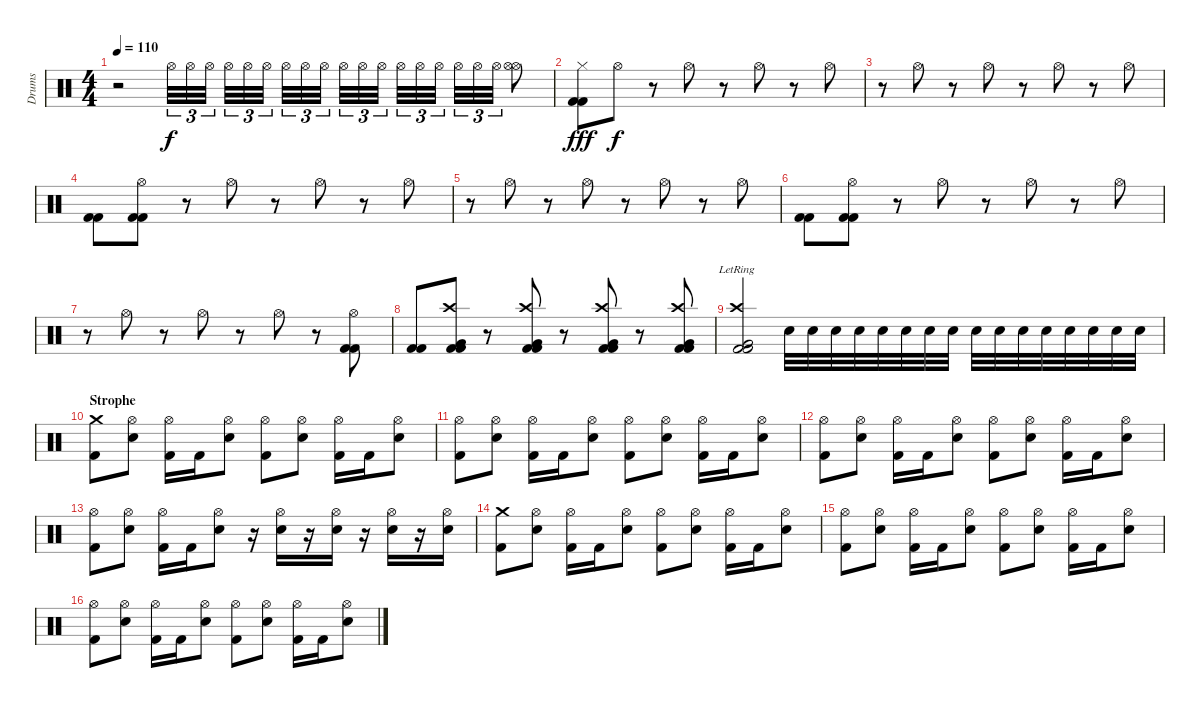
\track ("Drums" "Drums") {instrument percussion}
\staff {score}
\articulation defaults
\ts (4 4)
\tempo 110
\clef neutral
\ks c
r.2{dy f volume 0} "Hi-Hat (open)".32{tu (3 2) volume 13} "Hi-Hat (open)".32{tu (3 2)} "Hi-Hat (open)".32{tu (3 2)} "Hi-Hat (open)".32{tu (3 2)} "Hi-Hat (open)".32{tu (3 2)} "Hi-Hat (open)".32{tu (3 2)} "Hi-Hat (open)".32{tu (3 2)} "Hi-Hat (open)".32{tu (3 2)} "Hi-Hat (open)".32{tu (3 2)} "Hi-Hat (open)".32{tu (3 2)} "Hi-Hat (open)".32{tu (3 2)} "Hi-Hat (open)".32{tu (3 2)} "Hi-Hat (open)".32{tu (3 2)} "Hi-Hat (open)".32{tu (3 2)} "Hi-Hat (open)".32{tu (3 2)} "Hi-Hat (open)".32{tu (3 2)} "Hi-Hat (open)".32{tu (3 2)} "Hi-Hat (open)".32{tu (3 2)} ("Hi-Hat (open)" "Hi-Hat (open)").8 |
("Hi-Hat (closed)" "Kick (hit) 2" "Kick (hit) 2").8{dy fff} "Hi-Hat (open)".8{dy f} r.8 "Hi-Hat (open)".8 r.8 "Hi-Hat (open)".8 r.8 "Hi-Hat (open)".8 |
r.8 "Hi-Hat (open)".8 r.8 "Hi-Hat (open)".8 r.8 "Hi-Hat (open)".8 r.8 "Hi-Hat (open)".8 |
("Kick (hit) 2" "Kick (hit) 2").8 ("Hi-Hat (open)" "Kick (hit) 2" "Kick (hit) 2").8 r.8 "Hi-Hat (open)".8 r.8 "Hi-Hat (open)".8 r.8 "Hi-Hat (open)".8 |
r.8 "Hi-Hat (open)".8 r.8 "Hi-Hat (open)".8 r.8 "Hi-Hat (open)".8 r.8 "Hi-Hat (open)".8 |
("Kick (hit) 2" "Kick (hit) 2").8 ("Hi-Hat (open)" "Kick (hit) 2" "Kick (hit) 2").8 r.8 "Hi-Hat (open)".8 r.8 "Hi-Hat (open)".8 r.8 "Hi-Hat (open)".8 |
r.8 "Hi-Hat (open)".8 r.8 "Hi-Hat (open)".8 r.8 "Hi-Hat (open)".8 r.8 ("Hi-Hat (open)" "Kick (hit) 2" "Kick (hit) 2").8 |
("Kick (hit) 2" "Kick (hit) 2").8 ("Crash high (hit)" "Very Low Tom (hit)" "Kick (hit) 2" "Kick (hit) 2").8 r.8 ("Crash high (hit)" "Very Low Tom (hit)" "Kick (hit) 2" "Kick (hit) 2").8 r.8 ("Crash high (hit)" "Very Low Tom (hit)" "Kick (hit) 2" "Kick (hit) 2").8 r.8 ("Crash high (hit)" "Very Low Tom (hit)" "Kick (hit) 2" "Kick (hit) 2").8 |
("Crash high (hit)"{lr} "Very Low Tom (hit)" "Kick (hit) 2" "Kick (hit) 2").2 "Snare (hit) 2".32 "Snare (hit) 2".32 "Snare (hit) 2".32 "Snare (hit) 2".32 "Snare (hit) 2".32 "Snare (hit) 2".32 "Snare (hit) 2".32 "Snare (hit) 2".32 "Snare (hit) 2".32 "Snare (hit) 2".32 "Snare (hit) 2".32 "Snare (hit) 2".32 "Snare (hit) 2".32 "Snare (hit) 2".32 "Snare (hit) 2".32 "Snare (hit) 2".32 |
\section ("" "Strophe")
("Crash medium (hit)" "Kick (hit) 2").8 ("Hi-Hat (open)" "Snare (hit) 2").8 ("Hi-Hat (open)" "Kick (hit) 2").16 "Kick (hit) 2".16 ("Hi-Hat (open)" "Snare (hit) 2").8 ("Hi-Hat (open)" "Kick (hit) 2").8 ("Hi-Hat (open)" "Snare (hit) 2").8 ("Hi-Hat (open)" "Kick (hit) 2").16 "Kick (hit) 2".16 ("Hi-Hat (open)" "Snare (hit) 2").8 |
("Hi-Hat (open)" "Kick (hit) 2").8 ("Hi-Hat (open)" "Snare (hit) 2").8 ("Hi-Hat (open)" "Kick (hit) 2").16 "Kick (hit) 2".16 ("Hi-Hat (open)" "Snare (hit) 2").8 ("Hi-Hat (open)" "Kick (hit) 2").8 ("Hi-Hat (open)" "Snare (hit) 2").8 ("Hi-Hat (open)" "Kick (hit) 2").16 "Kick (hit) 2".16 ("Hi-Hat (open)" "Snare (hit) 2").8 |
("Hi-Hat (open)" "Kick (hit) 2").8 ("Hi-Hat (open)" "Snare (hit) 2").8 ("Hi-Hat (open)" "Kick (hit) 2").16 "Kick (hit) 2".16 ("Hi-Hat (open)" "Snare (hit) 2").8 ("Hi-Hat (open)" "Kick (hit) 2").8 ("Hi-Hat (open)" "Snare (hit) 2").8 ("Hi-Hat (open)" "Kick (hit) 2").16 "Kick (hit) 2".16 ("Hi-Hat (open)" "Snare (hit) 2").8 |
("Hi-Hat (open)" "Kick (hit) 2").8 ("Hi-Hat (open)" "Snare (hit) 2").8 ("Hi-Hat (open)" "Kick (hit) 2").16 "Kick (hit) 2".16 ("Hi-Hat (open)" "Snare (hit) 2").8 r.16 ("Hi-Hat (open)" "Snare (hit) 2").16 r.16 ("Hi-Hat (open)" "Snare (hit) 2").16 r.16 ("Hi-Hat (open)" "Snare (hit) 2").16 r.16 ("Hi-Hat (open)" "Snare (hit) 2").16 |
("Crash medium (hit)" "Kick (hit) 2").8 ("Hi-Hat (open)" "Snare (hit) 2").8 ("Hi-Hat (open)" "Kick (hit) 2").16 "Kick (hit) 2".16 ("Hi-Hat (open)" "Snare (hit) 2").8 ("Hi-Hat (open)" "Kick (hit) 2").8 ("Hi-Hat (open)" "Snare (hit) 2").8 ("Hi-Hat (open)" "Kick (hit) 2").16 "Kick (hit) 2".16 ("Hi-Hat (open)" "Snare (hit) 2").8 |
("Hi-Hat (open)" "Kick (hit) 2").8 ("Hi-Hat (open)" "Snare (hit) 2").8 ("Hi-Hat (open)" "Kick (hit) 2").16 "Kick (hit) 2".16 ("Hi-Hat (open)" "Snare (hit) 2").8 ("Hi-Hat (open)" "Kick (hit) 2").8 ("Hi-Hat (open)" "Snare (hit) 2").8 ("Hi-Hat (open)" "Kick (hit) 2").16 "Kick (hit) 2".16 ("Hi-Hat (open)" "Snare (hit) 2").8 |
("Hi-Hat (open)" "Kick (hit) 2").8 ("Hi-Hat (open)" "Snare (hit) 2").8 ("Hi-Hat (open)" "Kick (hit) 2").16 "Kick (hit) 2".16 ("Hi-Hat (open)" "Snare (hit) 2").8 ("Hi-Hat (open)" "Kick (hit) 2").8 ("Hi-Hat (open)" "Snare (hit) 2").8 ("Hi-Hat (open)" "Kick (hit) 2").16 "Kick (hit) 2".16 ("Hi-Hat (open)" "Snare (hit) 2").8
